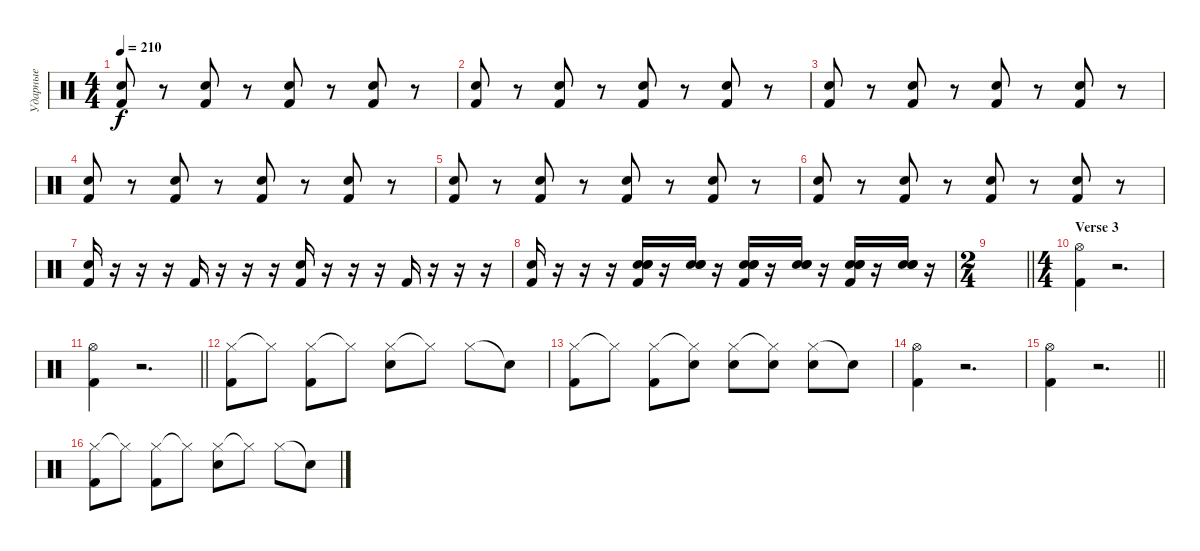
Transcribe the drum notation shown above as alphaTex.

\track ("Ударные" "Ударные") {instrument percussion}
\staff {score}
\articulation defaults
\ts (4 4)
\tempo 210
\clef neutral
\ks c
("Snare (hit) 2" "Kick (hit) 2").8{dy f} r.8 ("Snare (hit) 2" "Kick (hit) 2").8 r.8 ("Snare (hit) 2" "Kick (hit) 2").8 r.8 ("Snare (hit) 2" "Kick (hit) 2").8 r.8 |
("Snare (hit) 2" "Kick (hit) 2").8 r.8 ("Snare (hit) 2" "Kick (hit) 2").8 r.8 ("Snare (hit) 2" "Kick (hit) 2").8 r.8 ("Snare (hit) 2" "Kick (hit) 2").8 r.8 |
("Snare (hit) 2" "Kick (hit) 2").8 r.8 ("Snare (hit) 2" "Kick (hit) 2").8 r.8 ("Snare (hit) 2" "Kick (hit) 2").8 r.8 ("Snare (hit) 2" "Kick (hit) 2").8 r.8 |
("Snare (hit) 2" "Kick (hit) 2").8 r.8 ("Snare (hit) 2" "Kick (hit) 2").8 r.8 ("Snare (hit) 2" "Kick (hit) 2").8 r.8 ("Snare (hit) 2" "Kick (hit) 2").8 r.8 |
("Snare (hit) 2" "Kick (hit) 2").8 r.8 ("Snare (hit) 2" "Kick (hit) 2").8 r.8 ("Snare (hit) 2" "Kick (hit) 2").8 r.8 ("Snare (hit) 2" "Kick (hit) 2").8 r.8 |
("Snare (hit) 2" "Kick (hit) 2").8 r.8 ("Snare (hit) 2" "Kick (hit) 2").8 r.8 ("Snare (hit) 2" "Kick (hit) 2").8 r.8 ("Snare (hit) 2" "Kick (hit) 2").8 r.8 |
("Snare (hit) 2" "Kick (hit) 2").16 r.16 r.16 r.16 "Kick (hit) 2".16 r.16 r.16 r.16 ("Snare (hit) 2" "Kick (hit) 2").16 r.16 r.16 r.16 "Kick (hit) 2".16 r.16 r.16 r.16 |
("Snare (hit) 2" "Kick (hit) 2").16 r.16 r.16 r.16 ("Snare (hit) 2" "Snare (hit) 2" "Snare (hit) 2" "Kick (hit) 2").16 r.16 ("Snare (hit) 2" "Snare (hit) 2" "Snare (hit) 2").16 r.16 ("Snare (hit) 2" "Snare (hit) 2" "Snare (hit) 2" "Kick (hit) 2").16 r.16 ("Snare (hit) 2" "Snare (hit) 2" "Snare (hit) 2").16 r.16 ("Snare (hit) 2" "Snare (hit) 2" "Snare (hit) 2" "Kick (hit) 2").16 r.16 ("Snare (hit) 2" "Snare (hit) 2" "Snare (hit) 2").16 r.16 |
\ts (2 4)
\barLineRight lightlight
|
\ts (4 4)
\section ("" "Verse 3")
("Hi-Hat (open)" "Kick (hit) 2").4 r.2{d} |
\barLineRight lightlight
("Hi-Hat (open)" "Kick (hit) 2").4 r.2{d} |
("Hi-Hat (closed)" "Kick (hit) 2").8 "Hi-Hat (closed)"{t}.8 ("Hi-Hat (closed)" "Kick (hit) 2").8 "Hi-Hat (closed)"{t}.8 ("Hi-Hat (closed)" "Snare (hit) 2").8 "Hi-Hat (closed)"{t}.8 "Hi-Hat (closed)".8 "Snare (hit)"{t}.8 |
("Hi-Hat (closed)" "Kick (hit) 2").8 "Hi-Hat (closed)"{t}.8 ("Hi-Hat (closed)" "Kick (hit) 2").8 ("Hi-Hat (closed)"{t} "Snare (hit) 2").8 ("Hi-Hat (closed)" "Snare (hit) 2").8 ("Hi-Hat (closed)"{t} "Snare (hit) 2").8 ("Hi-Hat (closed)" "Snare (hit) 2").8 "Snare (hit)"{t}.8 |
("Hi-Hat (open)" "Kick (hit) 2").4 r.2{d} |
\barLineRight lightlight
("Hi-Hat (open)" "Kick (hit) 2").4 r.2{d} |
("Hi-Hat (closed)" "Kick (hit) 2").8 "Hi-Hat (closed)"{t}.8 ("Hi-Hat (closed)" "Kick (hit) 2").8 "Hi-Hat (closed)"{t}.8 ("Hi-Hat (closed)" "Snare (hit) 2").8 "Hi-Hat (closed)"{t}.8 "Hi-Hat (closed)".8 "Snare (hit)"{t}.8
